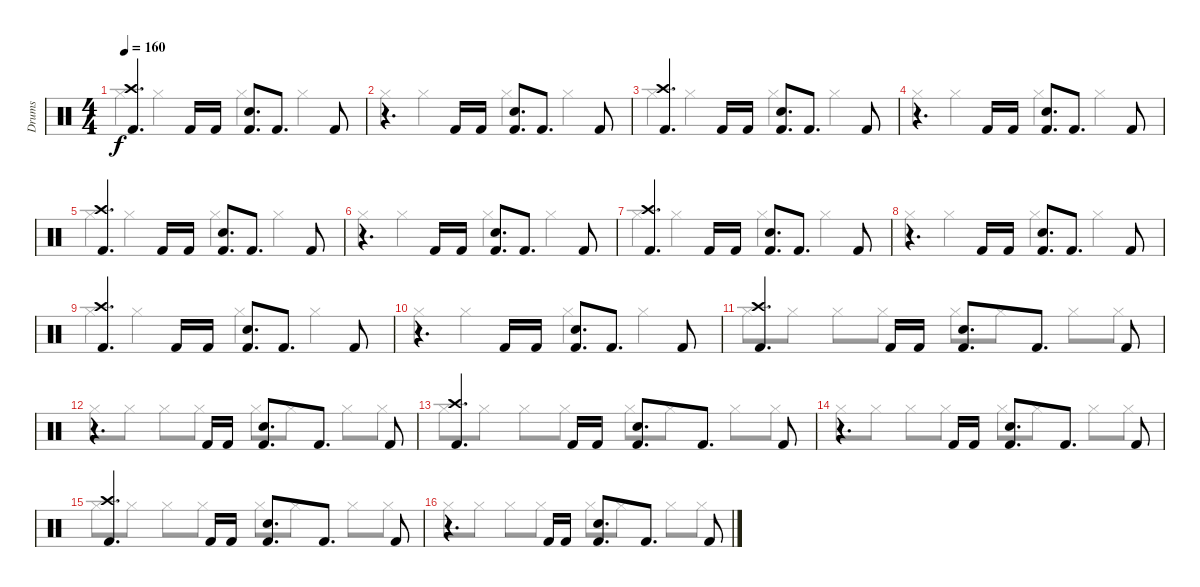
\track ("Drums" "Drums") {instrument percussion}
\staff {score}
\articulation defaults
\voice
\ts (4 4)
\tempo 160
\clef neutral
\ks c
("Crash high (hit)" "Kick (hit) 2").4{d dy f} "Kick (hit) 2".16 "Kick (hit) 2".16 ("Snare (hit) 2" "Kick (hit) 2").8{d} "Kick (hit) 2".8{d} "Kick (hit) 2".8 |
r.4{d} "Kick (hit) 2".16 "Kick (hit) 2".16 ("Snare (hit) 2" "Kick (hit) 2").8{d} "Kick (hit) 2".8{d} "Kick (hit) 2".8 |
("Crash high (hit)" "Kick (hit) 2").4{d} "Kick (hit) 2".16 "Kick (hit) 2".16 ("Snare (hit) 2" "Kick (hit) 2").8{d} "Kick (hit) 2".8{d} "Kick (hit) 2".8 |
r.4{d} "Kick (hit) 2".16 "Kick (hit) 2".16 ("Snare (hit) 2" "Kick (hit) 2").8{d} "Kick (hit) 2".8{d} "Kick (hit) 2".8 |
("Crash high (hit)" "Kick (hit) 2").4{d} "Kick (hit) 2".16 "Kick (hit) 2".16 ("Snare (hit) 2" "Kick (hit) 2").8{d} "Kick (hit) 2".8{d} "Kick (hit) 2".8 |
r.4{d} "Kick (hit) 2".16 "Kick (hit) 2".16 ("Snare (hit) 2" "Kick (hit) 2").8{d} "Kick (hit) 2".8{d} "Kick (hit) 2".8 |
("Crash high (hit)" "Kick (hit) 2").4{d} "Kick (hit) 2".16 "Kick (hit) 2".16 ("Snare (hit) 2" "Kick (hit) 2").8{d} "Kick (hit) 2".8{d} "Kick (hit) 2".8 |
r.4{d} "Kick (hit) 2".16 "Kick (hit) 2".16 ("Snare (hit) 2" "Kick (hit) 2").8{d} "Kick (hit) 2".8{d} "Kick (hit) 2".8 |
("Crash high (hit)" "Kick (hit) 2").4{d} "Kick (hit) 2".16 "Kick (hit) 2".16 ("Snare (hit) 2" "Kick (hit) 2").8{d} "Kick (hit) 2".8{d} "Kick (hit) 2".8 |
r.4{d} "Kick (hit) 2".16 "Kick (hit) 2".16 ("Snare (hit) 2" "Kick (hit) 2").8{d} "Kick (hit) 2".8{d} "Kick (hit) 2".8 |
("Crash high (hit)" "Kick (hit) 2").4{d} "Kick (hit) 2".16 "Kick (hit) 2".16 ("Snare (hit) 2" "Kick (hit) 2").8{d} "Kick (hit) 2".8{d} "Kick (hit) 2".8 |
r.4{d} "Kick (hit) 2".16 "Kick (hit) 2".16 ("Snare (hit) 2" "Kick (hit) 2").8{d} "Kick (hit) 2".8{d} "Kick (hit) 2".8 |
("Crash high (hit)" "Kick (hit) 2").4{d} "Kick (hit) 2".16 "Kick (hit) 2".16 ("Snare (hit) 2" "Kick (hit) 2").8{d} "Kick (hit) 2".8{d} "Kick (hit) 2".8 |
r.4{d} "Kick (hit) 2".16 "Kick (hit) 2".16 ("Snare (hit) 2" "Kick (hit) 2").8{d} "Kick (hit) 2".8{d} "Kick (hit) 2".8 |
("Crash high (hit)" "Kick (hit) 2").4{d} "Kick (hit) 2".16 "Kick (hit) 2".16 ("Snare (hit) 2" "Kick (hit) 2").8{d} "Kick (hit) 2".8{d} "Kick (hit) 2".8 |
r.4{d} "Kick (hit) 2".16 "Kick (hit) 2".16 ("Snare (hit) 2" "Kick (hit) 2").8{d} "Kick (hit) 2".8{d} "Kick (hit) 2".8
\voice
\clef neutral
\ottava regular
\simile none
\ks c "Hi-Hat (closed)".4{dy f} "Hi-Hat (closed)".4 "Hi-Hat (closed)".4 "Hi-Hat (closed)".4
|
"Hi-Hat (closed)".4 "Hi-Hat (closed)".4 "Hi-Hat (closed)".4 "Hi-Hat (closed)".4 |
"Hi-Hat (closed)".4 "Hi-Hat (closed)".4 "Hi-Hat (closed)".4 "Hi-Hat (closed)".4 |
"Hi-Hat (closed)".4 "Hi-Hat (closed)".4 "Hi-Hat (closed)".4 "Hi-Hat (closed)".4 |
"Hi-Hat (closed)".4 "Hi-Hat (closed)".4 "Hi-Hat (closed)".4 "Hi-Hat (closed)".4 |
"Hi-Hat (closed)".4 "Hi-Hat (closed)".4 "Hi-Hat (closed)".4 "Hi-Hat (closed)".4 |
"Hi-Hat (closed)".4 "Hi-Hat (closed)".4 "Hi-Hat (closed)".4 "Hi-Hat (closed)".4 |
"Hi-Hat (closed)".4 "Hi-Hat (closed)".4 "Hi-Hat (closed)".4 "Hi-Hat (closed)".4 |
"Hi-Hat (closed)".4 "Hi-Hat (closed)".4 "Hi-Hat (closed)".4 "Hi-Hat (closed)".4 |
"Hi-Hat (closed)".4 "Hi-Hat (closed)".4 "Hi-Hat (closed)".4 "Hi-Hat (closed)".4 |
"Hi-Hat (closed)".8 "Hi-Hat (closed)".8 "Hi-Hat (closed)".8 "Hi-Hat (closed)".8 "Hi-Hat (closed)".8 "Hi-Hat (closed)".8 "Hi-Hat (closed)".8 "Hi-Hat (closed)".8 |
"Hi-Hat (closed)".8 "Hi-Hat (closed)".8 "Hi-Hat (closed)".8 "Hi-Hat (closed)".8 "Hi-Hat (closed)".8 "Hi-Hat (closed)".8 "Hi-Hat (closed)".8 "Hi-Hat (closed)".8 |
"Hi-Hat (closed)".8 "Hi-Hat (closed)".8 "Hi-Hat (closed)".8 "Hi-Hat (closed)".8 "Hi-Hat (closed)".8 "Hi-Hat (closed)".8 "Hi-Hat (closed)".8 "Hi-Hat (closed)".8 |
"Hi-Hat (closed)".8 "Hi-Hat (closed)".8 "Hi-Hat (closed)".8 "Hi-Hat (closed)".8 "Hi-Hat (closed)".8 "Hi-Hat (closed)".8 "Hi-Hat (closed)".8 "Hi-Hat (closed)".8 |
"Hi-Hat (closed)".8 "Hi-Hat (closed)".8 "Hi-Hat (closed)".8 "Hi-Hat (closed)".8 "Hi-Hat (closed)".8 "Hi-Hat (closed)".8 "Hi-Hat (closed)".8 "Hi-Hat (closed)".8 |
"Hi-Hat (closed)".8 "Hi-Hat (closed)".8 "Hi-Hat (closed)".8 "Hi-Hat (closed)".8 "Hi-Hat (closed)".8 "Hi-Hat (closed)".8 "Hi-Hat (closed)".8 "Hi-Hat (closed)".8
